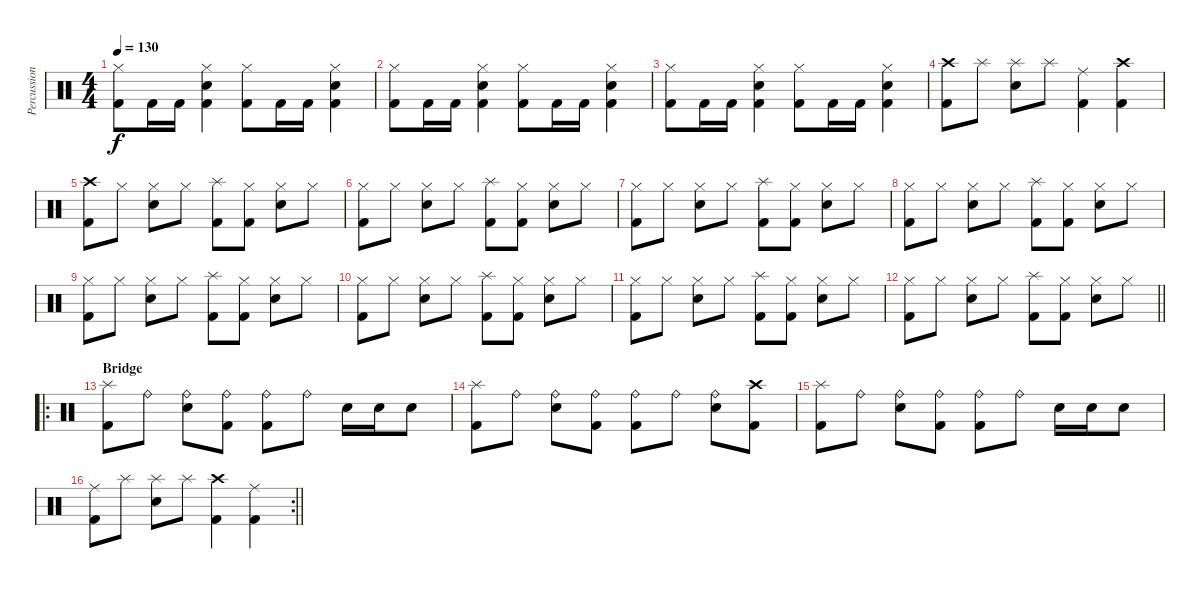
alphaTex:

\track ("Percussion" "Percussion") {instrument percussion}
\staff {score}
\articulation defaults
\ts (4 4)
\tempo 130
\clef neutral
\ks c
("Hi-Hat (closed)" "Kick (hit) 2").8{dy f} "Kick (hit) 2".16 "Kick (hit) 2".16 ("Hi-Hat (closed)" "Electric Snare (hit)" "Kick (hit) 2").4 ("Hi-Hat (closed)" "Kick (hit) 2").8 "Kick (hit) 2".16 "Kick (hit) 2".16 ("Hi-Hat (closed)" "Electric Snare (hit)" "Kick (hit) 2").4 |
("Hi-Hat (closed)" "Kick (hit) 2").8 "Kick (hit) 2".16 "Kick (hit) 2".16 ("Hi-Hat (closed)" "Electric Snare (hit)" "Kick (hit) 2").4 ("Hi-Hat (closed)" "Kick (hit) 2").8 "Kick (hit) 2".16 "Kick (hit) 2".16 ("Hi-Hat (closed)" "Electric Snare (hit)" "Kick (hit) 2").4 |
("Hi-Hat (closed)" "Kick (hit) 2").8 "Kick (hit) 2".16 "Kick (hit) 2".16 ("Hi-Hat (closed)" "Electric Snare (hit)" "Kick (hit) 2").4 ("Hi-Hat (closed)" "Kick (hit) 2").8 "Kick (hit) 2".16 "Kick (hit) 2".16 ("Hi-Hat (closed)" "Electric Snare (hit)" "Kick (hit) 2").4 |
("Crash high (hit)" "Kick (hit) 2").8 "Splash (hit)".8 ("Splash (hit)" "Electric Snare (hit)").8 "Splash (hit)".8 ("Ride (middle)" "Kick (hit) 2").4 ("Crash high (hit)" "Kick (hit) 2").4 |
("Crash high (hit)" "Kick (hit) 2").8 "Hi-Hat (closed)".8 ("Hi-Hat (closed)" "Electric Snare (hit)").8 "Hi-Hat (closed)".8 ("Splash (hit)" "Kick (hit) 2").8 ("Hi-Hat (closed)" "Kick (hit) 2").8 ("Hi-Hat (closed)" "Electric Snare (hit)").8 "Hi-Hat (closed)".8 |
("Hi-Hat (closed)" "Kick (hit) 2").8 "Hi-Hat (closed)".8 ("Hi-Hat (closed)" "Electric Snare (hit)").8 "Hi-Hat (closed)".8 ("Splash (hit)" "Kick (hit) 2").8 ("Hi-Hat (closed)" "Kick (hit) 2").8 ("Hi-Hat (closed)" "Electric Snare (hit)").8 "Hi-Hat (closed)".8 |
("Hi-Hat (closed)" "Kick (hit) 2").8 "Hi-Hat (closed)".8 ("Hi-Hat (closed)" "Electric Snare (hit)").8 "Hi-Hat (closed)".8 ("Splash (hit)" "Kick (hit) 2").8 ("Hi-Hat (closed)" "Kick (hit) 2").8 ("Hi-Hat (closed)" "Electric Snare (hit)").8 "Hi-Hat (closed)".8 |
("Hi-Hat (closed)" "Kick (hit) 2").8 "Hi-Hat (closed)".8 ("Hi-Hat (closed)" "Electric Snare (hit)").8 "Hi-Hat (closed)".8 ("Splash (hit)" "Kick (hit) 2").8 ("Hi-Hat (closed)" "Kick (hit) 2").8 ("Hi-Hat (closed)" "Electric Snare (hit)").8 "Hi-Hat (closed)".8 |
("Hi-Hat (closed)" "Kick (hit) 2").8 "Hi-Hat (closed)".8 ("Hi-Hat (closed)" "Electric Snare (hit)").8 "Hi-Hat (closed)".8 ("Splash (hit)" "Kick (hit) 2").8 ("Hi-Hat (closed)" "Kick (hit) 2").8 ("Hi-Hat (closed)" "Electric Snare (hit)").8 "Hi-Hat (closed)".8 |
("Hi-Hat (closed)" "Kick (hit) 2").8 "Hi-Hat (closed)".8 ("Hi-Hat (closed)" "Electric Snare (hit)").8 "Hi-Hat (closed)".8 ("Splash (hit)" "Kick (hit) 2").8 ("Hi-Hat (closed)" "Kick (hit) 2").8 ("Hi-Hat (closed)" "Electric Snare (hit)").8 "Hi-Hat (closed)".8 |
("Hi-Hat (closed)" "Kick (hit) 2").8 "Hi-Hat (closed)".8 ("Hi-Hat (closed)" "Electric Snare (hit)").8 "Hi-Hat (closed)".8 ("Splash (hit)" "Kick (hit) 2").8 ("Hi-Hat (closed)" "Kick (hit) 2").8 ("Hi-Hat (closed)" "Electric Snare (hit)").8 "Hi-Hat (closed)".8 |
\barLineRight lightlight
("Hi-Hat (closed)" "Kick (hit) 2").8 "Hi-Hat (closed)".8 ("Hi-Hat (closed)" "Electric Snare (hit)").8 "Hi-Hat (closed)".8 ("Splash (hit)" "Kick (hit) 2").8 ("Hi-Hat (closed)" "Kick (hit) 2").8 ("Hi-Hat (closed)" "Electric Snare (hit)").8 "Hi-Hat (closed)".8 |
\ro
\section ("" "Bridge ")
("Splash (hit)" "Kick (hit) 2").8 "Ride (bell)".8 ("Ride (bell)" "Electric Snare (hit)").8 ("Ride (bell)" "Kick (hit) 2").8 ("Ride (bell)" "Kick (hit) 2").8 "Ride (bell)".8 "Electric Snare (hit)".16 "Electric Snare (hit)".16 "Electric Snare (hit)".8 |
("Splash (hit)" "Kick (hit) 2").8 "Ride (bell)".8 ("Ride (bell)" "Electric Snare (hit)").8 ("Ride (bell)" "Kick (hit) 2").8 ("Ride (bell)" "Kick (hit) 2").8 "Ride (bell)".8 ("Ride (bell)" "Electric Snare (hit)").8 ("Crash high (hit)" "Kick (hit) 2").8 |
("Splash (hit)" "Kick (hit) 2").8 "Ride (bell)".8 ("Ride (bell)" "Electric Snare (hit)").8 ("Ride (bell)" "Kick (hit) 2").8 ("Ride (bell)" "Kick (hit) 2").8 "Ride (bell)".8 "Electric Snare (hit)".16 "Electric Snare (hit)".16 "Electric Snare (hit)".8 |
\rc 2
\barLineRight lightlight
("Ride (middle)" "Kick (hit) 2").8 "Splash (hit)".8 ("Splash (hit)" "Electric Snare (hit)").8 "Splash (hit)".8 ("Crash high (hit)" "Kick (hit) 2").4 ("Ride (middle)" "Kick (hit) 2").4
